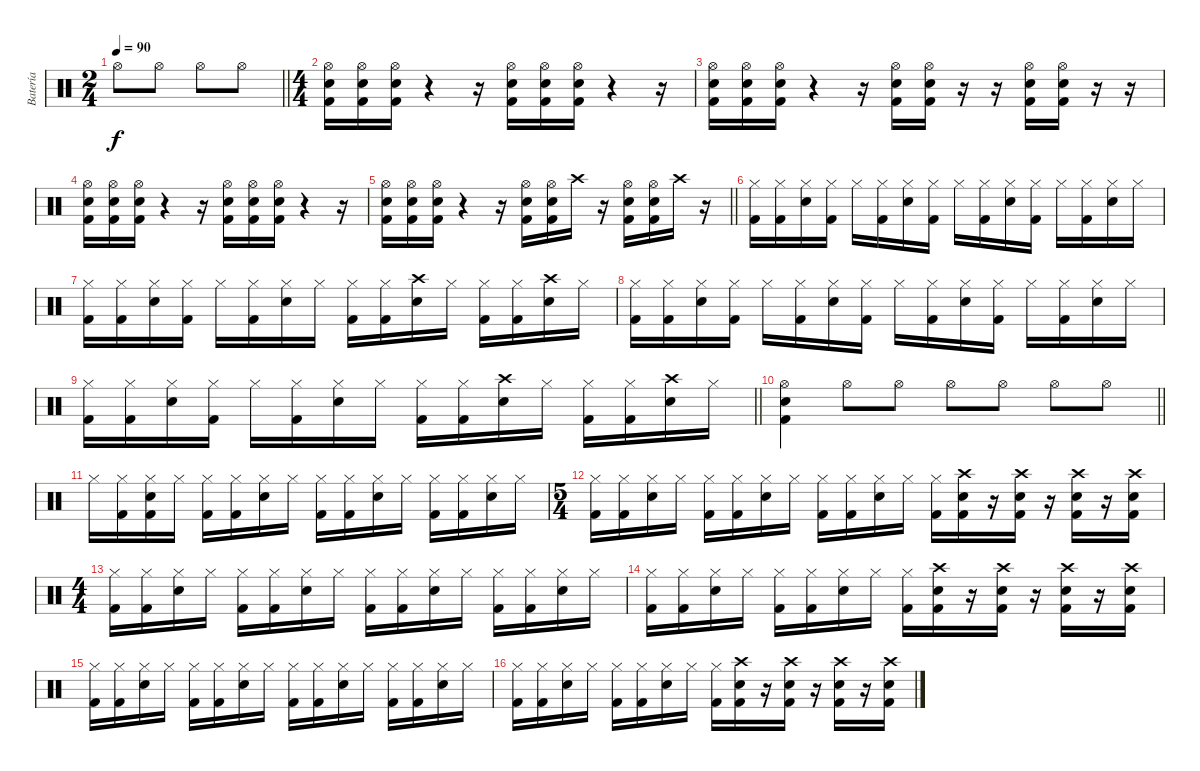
\track ("Batería   (Jony)" "Batería   ") {instrument percussion}
\staff {score}
\articulation defaults
\ts (2 4)
\tempo 90
\clef neutral
\barLineRight lightlight
\ks c "Hi-Hat (open)".8{dy f} "Hi-Hat (open)".8 "Hi-Hat (open)".8 "Hi-Hat (open)".8
|
\ts (4 4)
("Hi-Hat (open)" "Electric Snare (hit)" "Kick (hit) 2").16 ("Hi-Hat (open)" "Electric Snare (hit)" "Kick (hit) 2").16 ("Hi-Hat (open)" "Electric Snare (hit)" "Kick (hit) 2").16 r.4 r.16 ("Hi-Hat (open)" "Electric Snare (hit)" "Kick (hit) 2").16 ("Hi-Hat (open)" "Electric Snare (hit)" "Kick (hit) 2").16 ("Hi-Hat (open)" "Electric Snare (hit)" "Kick (hit) 2").16 r.4 r.16 |
("Hi-Hat (open)" "Electric Snare (hit)" "Kick (hit) 2").16 ("Hi-Hat (open)" "Electric Snare (hit)" "Kick (hit) 2").16 ("Hi-Hat (open)" "Electric Snare (hit)" "Kick (hit) 2").16 r.4 r.16 ("Hi-Hat (open)" "Electric Snare (hit)" "Kick (hit) 2").16 ("Hi-Hat (open)" "Electric Snare (hit)" "Kick (hit) 2").16 r.16 r.16 ("Hi-Hat (open)" "Electric Snare (hit)" "Kick (hit) 2").16 ("Hi-Hat (open)" "Electric Snare (hit)" "Kick (hit) 2").16 r.16 r.16 |
("Hi-Hat (open)" "Electric Snare (hit)" "Kick (hit) 2").16 ("Hi-Hat (open)" "Electric Snare (hit)" "Kick (hit) 2").16 ("Hi-Hat (open)" "Electric Snare (hit)" "Kick (hit) 2").16 r.4 r.16 ("Hi-Hat (open)" "Electric Snare (hit)" "Kick (hit) 2").16 ("Hi-Hat (open)" "Electric Snare (hit)" "Kick (hit) 2").16 ("Hi-Hat (open)" "Electric Snare (hit)" "Kick (hit) 2").16 r.4 r.16 |
\barLineRight lightlight
("Hi-Hat (open)" "Electric Snare (hit)" "Kick (hit) 2").16 ("Hi-Hat (open)" "Electric Snare (hit)" "Kick (hit) 2").16 ("Hi-Hat (open)" "Electric Snare (hit)" "Kick (hit) 2").16 r.4 r.16 ("Hi-Hat (open)" "Electric Snare (hit)" "Kick (hit) 2").16 ("Hi-Hat (open)" "Electric Snare (hit)" "Kick (hit) 2").16 "Crash high (hit)".16 r.16 ("Hi-Hat (open)" "Electric Snare (hit)" "Kick (hit) 2").16 ("Hi-Hat (open)" "Electric Snare (hit)" "Kick (hit) 2").16 "Crash high (hit)".16 r.16 |
("Hi-Hat (closed)" "Kick (hit) 2").16 ("Hi-Hat (closed)" "Kick (hit) 2").16 ("Hi-Hat (closed)" "Electric Snare (hit)").16 ("Hi-Hat (closed)" "Kick (hit) 2").16 "Hi-Hat (closed)".16 ("Hi-Hat (closed)" "Kick (hit) 2").16 ("Hi-Hat (closed)" "Electric Snare (hit)").16 ("Hi-Hat (closed)" "Kick (hit) 2").16 "Hi-Hat (closed)".16 ("Hi-Hat (closed)" "Kick (hit) 2").16 ("Hi-Hat (closed)" "Electric Snare (hit)").16 ("Hi-Hat (closed)" "Kick (hit) 2").16 "Hi-Hat (closed)".16 ("Hi-Hat (closed)" "Kick (hit) 2").16 ("Hi-Hat (closed)" "Electric Snare (hit)").16 "Hi-Hat (closed)".16 |
("Hi-Hat (closed)" "Kick (hit) 2").16 ("Hi-Hat (closed)" "Kick (hit) 2").16 ("Hi-Hat (closed)" "Electric Snare (hit)").16 ("Hi-Hat (closed)" "Kick (hit) 2").16 "Hi-Hat (closed)".16 ("Hi-Hat (closed)" "Kick (hit) 2").16 ("Hi-Hat (closed)" "Electric Snare (hit)").16 "Hi-Hat (closed)".16 ("Hi-Hat (closed)" "Kick (hit) 2").16 ("Hi-Hat (closed)" "Kick (hit) 2").16 ("Crash high (hit)" "Electric Snare (hit)").16 "Hi-Hat (closed)".16 ("Hi-Hat (closed)" "Kick (hit) 2").16 ("Hi-Hat (closed)" "Kick (hit) 2").16 ("Crash high (hit)" "Electric Snare (hit)").16 "Hi-Hat (closed)".16 |
("Hi-Hat (closed)" "Kick (hit) 2").16 ("Hi-Hat (closed)" "Kick (hit) 2").16 ("Hi-Hat (closed)" "Electric Snare (hit)").16 ("Hi-Hat (closed)" "Kick (hit) 2").16 "Hi-Hat (closed)".16 ("Hi-Hat (closed)" "Kick (hit) 2").16 ("Hi-Hat (closed)" "Electric Snare (hit)").16 ("Hi-Hat (closed)" "Kick (hit) 2").16 "Hi-Hat (closed)".16 ("Hi-Hat (closed)" "Kick (hit) 2").16 ("Hi-Hat (closed)" "Electric Snare (hit)").16 ("Hi-Hat (closed)" "Kick (hit) 2").16 "Hi-Hat (closed)".16 ("Hi-Hat (closed)" "Kick (hit) 2").16 ("Hi-Hat (closed)" "Electric Snare (hit)").16 "Hi-Hat (closed)".16 |
\barLineRight lightlight
("Hi-Hat (closed)" "Kick (hit) 2").16 ("Hi-Hat (closed)" "Kick (hit) 2").16 ("Hi-Hat (closed)" "Electric Snare (hit)").16 ("Hi-Hat (closed)" "Kick (hit) 2").16 "Hi-Hat (closed)".16 ("Hi-Hat (closed)" "Kick (hit) 2").16 ("Hi-Hat (closed)" "Electric Snare (hit)").16 "Hi-Hat (closed)".16 ("Hi-Hat (closed)" "Kick (hit) 2").16 ("Hi-Hat (closed)" "Kick (hit) 2").16 ("Crash high (hit)" "Electric Snare (hit)").16 "Hi-Hat (closed)".16 ("Hi-Hat (closed)" "Kick (hit) 2").16 ("Hi-Hat (closed)" "Kick (hit) 2").16 ("Crash high (hit)" "Electric Snare (hit)").16 "Hi-Hat (closed)".16 |
\barLineRight lightlight
("Hi-Hat (open)" "Electric Snare (hit)" "Kick (hit) 2").4 "Hi-Hat (open)".8 "Hi-Hat (open)".8 "Hi-Hat (open)".8 "Hi-Hat (open)".8 "Hi-Hat (open)".8 "Hi-Hat (open)".8 |
"Hi-Hat (closed)".16 ("Hi-Hat (closed)" "Kick (hit) 2").16 ("Hi-Hat (closed)" "Electric Snare (hit)" "Kick (hit) 2").16 "Hi-Hat (closed)".16 ("Hi-Hat (closed)" "Kick (hit) 2").16 ("Hi-Hat (closed)" "Kick (hit) 2").16 ("Hi-Hat (closed)" "Electric Snare (hit)").16 "Hi-Hat (closed)".16 ("Hi-Hat (closed)" "Kick (hit) 2").16 ("Hi-Hat (closed)" "Kick (hit) 2").16 ("Hi-Hat (closed)" "Electric Snare (hit)").16 "Hi-Hat (closed)".16 ("Hi-Hat (closed)" "Kick (hit) 2").16 ("Hi-Hat (closed)" "Kick (hit) 2").16 ("Hi-Hat (closed)" "Electric Snare (hit)").16 "Hi-Hat (closed)".16 |
\ts (5 4)
("Hi-Hat (closed)" "Kick (hit) 2").16 ("Hi-Hat (closed)" "Kick (hit) 2").16 ("Hi-Hat (closed)" "Electric Snare (hit)").16 "Hi-Hat (closed)".16 ("Hi-Hat (closed)" "Kick (hit) 2").16 ("Hi-Hat (closed)" "Kick (hit) 2").16 ("Hi-Hat (closed)" "Electric Snare (hit)").16 "Hi-Hat (closed)".16 ("Hi-Hat (closed)" "Kick (hit) 2").16 ("Hi-Hat (closed)" "Kick (hit) 2").16 ("Hi-Hat (closed)" "Electric Snare (hit)").16 "Hi-Hat (closed)".16 ("Hi-Hat (closed)" "Kick (hit) 2").16 ("Crash high (hit)" "Electric Snare (hit)" "Kick (hit) 2").16 r.16 ("Crash high (hit)" "Electric Snare (hit)" "Kick (hit) 2").16 r.16 ("Crash high (hit)" "Electric Snare (hit)" "Kick (hit) 2").16 r.16 ("Crash high (hit)" "Electric Snare (hit)" "Kick (hit) 2").16 |
\ts (4 4)
("Hi-Hat (closed)" "Kick (hit) 2").16 ("Hi-Hat (closed)" "Kick (hit) 2").16 ("Hi-Hat (closed)" "Electric Snare (hit)").16 "Hi-Hat (closed)".16 ("Hi-Hat (closed)" "Kick (hit) 2").16 ("Hi-Hat (closed)" "Kick (hit) 2").16 ("Hi-Hat (closed)" "Electric Snare (hit)").16 "Hi-Hat (closed)".16 ("Hi-Hat (closed)" "Kick (hit) 2").16 ("Hi-Hat (closed)" "Kick (hit) 2").16 ("Hi-Hat (closed)" "Electric Snare (hit)").16 "Hi-Hat (closed)".16 ("Hi-Hat (closed)" "Kick (hit) 2").16 ("Hi-Hat (closed)" "Kick (hit) 2").16 ("Hi-Hat (closed)" "Electric Snare (hit)").16 "Hi-Hat (closed)".16 |
("Hi-Hat (closed)" "Kick (hit) 2").16 ("Hi-Hat (closed)" "Kick (hit) 2").16 ("Hi-Hat (closed)" "Electric Snare (hit)").16 "Hi-Hat (closed)".16 ("Hi-Hat (closed)" "Kick (hit) 2").16 ("Hi-Hat (closed)" "Kick (hit) 2").16 ("Hi-Hat (closed)" "Electric Snare (hit)").16 "Hi-Hat (closed)".16 ("Hi-Hat (closed)" "Kick (hit) 2").16 ("Crash high (hit)" "Electric Snare (hit)" "Kick (hit) 2").16 r.16 ("Crash high (hit)" "Electric Snare (hit)" "Kick (hit) 2").16 r.16 ("Crash high (hit)" "Electric Snare (hit)" "Kick (hit) 2").16 r.16 ("Crash high (hit)" "Electric Snare (hit)" "Kick (hit) 2").16 |
("Hi-Hat (closed)" "Kick (hit) 2").16 ("Hi-Hat (closed)" "Kick (hit) 2").16 ("Hi-Hat (closed)" "Electric Snare (hit)").16 "Hi-Hat (closed)".16 ("Hi-Hat (closed)" "Kick (hit) 2").16 ("Hi-Hat (closed)" "Kick (hit) 2").16 ("Hi-Hat (closed)" "Electric Snare (hit)").16 "Hi-Hat (closed)".16 ("Hi-Hat (closed)" "Kick (hit) 2").16 ("Hi-Hat (closed)" "Kick (hit) 2").16 ("Hi-Hat (closed)" "Electric Snare (hit)").16 "Hi-Hat (closed)".16 ("Hi-Hat (closed)" "Kick (hit) 2").16 ("Hi-Hat (closed)" "Kick (hit) 2").16 ("Hi-Hat (closed)" "Electric Snare (hit)").16 "Hi-Hat (closed)".16 |
("Hi-Hat (closed)" "Kick (hit) 2").16 ("Hi-Hat (closed)" "Kick (hit) 2").16 ("Hi-Hat (closed)" "Electric Snare (hit)").16 "Hi-Hat (closed)".16 ("Hi-Hat (closed)" "Kick (hit) 2").16 ("Hi-Hat (closed)" "Kick (hit) 2").16 ("Hi-Hat (closed)" "Electric Snare (hit)").16 "Hi-Hat (closed)".16 ("Hi-Hat (closed)" "Kick (hit) 2").16 ("Crash high (hit)" "Electric Snare (hit)" "Kick (hit) 2").16 r.16 ("Crash high (hit)" "Electric Snare (hit)" "Kick (hit) 2").16 r.16 ("Crash high (hit)" "Electric Snare (hit)" "Kick (hit) 2").16 r.16 ("Crash high (hit)" "Electric Snare (hit)" "Kick (hit) 2").16
